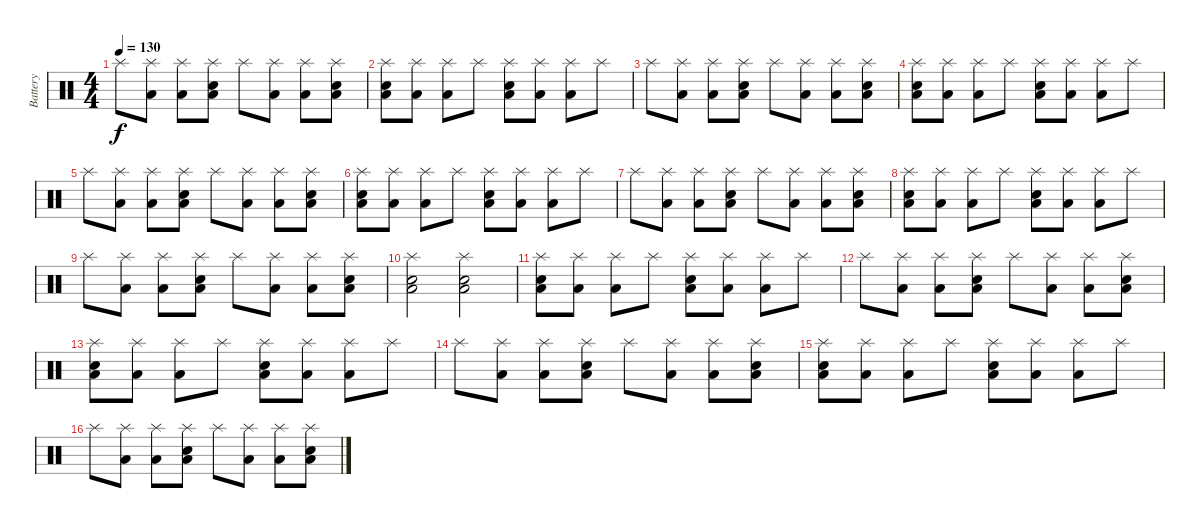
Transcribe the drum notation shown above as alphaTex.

\track ("Battery" "Battery") {instrument percussion}
\staff {score}
\articulation defaults
\ts (4 4)
\tempo 130
\clef neutral
\ks c "Splash (hit)".8{dy f}
("Splash (hit)" "Low Floor Tom (hit)").8 ("Splash (hit)" "Low Floor Tom (hit)").8 ("Splash (hit)" "Low Floor Tom (hit)" "Electric Snare (hit)").8 "Splash (hit)".8 ("Splash (hit)" "Low Floor Tom (hit)").8 ("Splash (hit)" "Low Floor Tom (hit)").8 ("Splash (hit)" "Low Floor Tom (hit)" "Electric Snare (hit)").8 |
("Splash (hit)" "Low Floor Tom (hit)" "Electric Snare (hit)").8 ("Splash (hit)" "Low Floor Tom (hit)").8 ("Splash (hit)" "Low Floor Tom (hit)").8 "Splash (hit)".8 ("Splash (hit)" "Low Floor Tom (hit)" "Electric Snare (hit)").8 ("Splash (hit)" "Low Floor Tom (hit)").8 ("Splash (hit)" "Low Floor Tom (hit)").8 "Splash (hit)".8 |
"Splash (hit)".8 ("Splash (hit)" "Low Floor Tom (hit)").8 ("Splash (hit)" "Low Floor Tom (hit)").8 ("Splash (hit)" "Low Floor Tom (hit)" "Electric Snare (hit)").8 "Splash (hit)".8 ("Splash (hit)" "Low Floor Tom (hit)").8 ("Splash (hit)" "Low Floor Tom (hit)").8 ("Splash (hit)" "Low Floor Tom (hit)" "Electric Snare (hit)").8 |
("Splash (hit)" "Low Floor Tom (hit)" "Electric Snare (hit)").8 ("Splash (hit)" "Low Floor Tom (hit)").8 ("Splash (hit)" "Low Floor Tom (hit)").8 "Splash (hit)".8 ("Splash (hit)" "Low Floor Tom (hit)" "Electric Snare (hit)").8 ("Splash (hit)" "Low Floor Tom (hit)").8 ("Splash (hit)" "Low Floor Tom (hit)").8 "Splash (hit)".8 |
"Splash (hit)".8 ("Splash (hit)" "Low Floor Tom (hit)").8 ("Splash (hit)" "Low Floor Tom (hit)").8 ("Splash (hit)" "Low Floor Tom (hit)" "Electric Snare (hit)").8 "Splash (hit)".8 ("Splash (hit)" "Low Floor Tom (hit)").8 ("Splash (hit)" "Low Floor Tom (hit)").8 ("Splash (hit)" "Low Floor Tom (hit)" "Electric Snare (hit)").8 |
("Splash (hit)" "Low Floor Tom (hit)" "Electric Snare (hit)").8 ("Splash (hit)" "Low Floor Tom (hit)").8 ("Splash (hit)" "Low Floor Tom (hit)").8 "Splash (hit)".8 ("Splash (hit)" "Low Floor Tom (hit)" "Electric Snare (hit)").8 ("Splash (hit)" "Low Floor Tom (hit)").8 ("Splash (hit)" "Low Floor Tom (hit)").8 "Splash (hit)".8 |
"Splash (hit)".8 ("Splash (hit)" "Low Floor Tom (hit)").8 ("Splash (hit)" "Low Floor Tom (hit)").8 ("Splash (hit)" "Low Floor Tom (hit)" "Electric Snare (hit)").8 "Splash (hit)".8 ("Splash (hit)" "Low Floor Tom (hit)").8 ("Splash (hit)" "Low Floor Tom (hit)").8 ("Splash (hit)" "Low Floor Tom (hit)" "Electric Snare (hit)").8 |
("Splash (hit)" "Low Floor Tom (hit)" "Electric Snare (hit)").8 ("Splash (hit)" "Low Floor Tom (hit)").8 ("Splash (hit)" "Low Floor Tom (hit)").8 "Splash (hit)".8 ("Splash (hit)" "Low Floor Tom (hit)" "Electric Snare (hit)").8 ("Splash (hit)" "Low Floor Tom (hit)").8 ("Splash (hit)" "Low Floor Tom (hit)").8 "Splash (hit)".8 |
"Splash (hit)".8 ("Splash (hit)" "Low Floor Tom (hit)").8 ("Splash (hit)" "Low Floor Tom (hit)").8 ("Splash (hit)" "Low Floor Tom (hit)" "Electric Snare (hit)").8 "Splash (hit)".8 ("Splash (hit)" "Low Floor Tom (hit)").8 ("Splash (hit)" "Low Floor Tom (hit)").8 ("Splash (hit)" "Low Floor Tom (hit)" "Electric Snare (hit)").8 |
("Low Floor Tom (hit)" "Electric Snare (hit)" "Splash (hit)").2 ("Low Floor Tom (hit)" "Electric Snare (hit)" "Splash (hit)").2 |
("Splash (hit)" "Low Floor Tom (hit)" "Electric Snare (hit)").8 ("Splash (hit)" "Low Floor Tom (hit)").8 ("Splash (hit)" "Low Floor Tom (hit)").8 "Splash (hit)".8 ("Splash (hit)" "Low Floor Tom (hit)" "Electric Snare (hit)").8 ("Splash (hit)" "Low Floor Tom (hit)").8 ("Splash (hit)" "Low Floor Tom (hit)").8 "Splash (hit)".8 |
"Splash (hit)".8 ("Splash (hit)" "Low Floor Tom (hit)").8 ("Splash (hit)" "Low Floor Tom (hit)").8 ("Splash (hit)" "Low Floor Tom (hit)" "Electric Snare (hit)").8 "Splash (hit)".8 ("Splash (hit)" "Low Floor Tom (hit)").8 ("Splash (hit)" "Low Floor Tom (hit)").8 ("Splash (hit)" "Low Floor Tom (hit)" "Electric Snare (hit)").8 |
("Splash (hit)" "Low Floor Tom (hit)" "Electric Snare (hit)").8 ("Splash (hit)" "Low Floor Tom (hit)").8 ("Splash (hit)" "Low Floor Tom (hit)").8 "Splash (hit)".8 ("Splash (hit)" "Low Floor Tom (hit)" "Electric Snare (hit)").8 ("Splash (hit)" "Low Floor Tom (hit)").8 ("Splash (hit)" "Low Floor Tom (hit)").8 "Splash (hit)".8 |
"Splash (hit)".8 ("Splash (hit)" "Low Floor Tom (hit)").8 ("Splash (hit)" "Low Floor Tom (hit)").8 ("Splash (hit)" "Low Floor Tom (hit)" "Electric Snare (hit)").8 "Splash (hit)".8 ("Splash (hit)" "Low Floor Tom (hit)").8 ("Splash (hit)" "Low Floor Tom (hit)").8 ("Splash (hit)" "Low Floor Tom (hit)" "Electric Snare (hit)").8 |
("Splash (hit)" "Low Floor Tom (hit)" "Electric Snare (hit)").8 ("Splash (hit)" "Low Floor Tom (hit)").8 ("Splash (hit)" "Low Floor Tom (hit)").8 "Splash (hit)".8 ("Splash (hit)" "Low Floor Tom (hit)" "Electric Snare (hit)").8 ("Splash (hit)" "Low Floor Tom (hit)").8 ("Splash (hit)" "Low Floor Tom (hit)").8 "Splash (hit)".8 |
"Splash (hit)".8 ("Splash (hit)" "Low Floor Tom (hit)").8 ("Splash (hit)" "Low Floor Tom (hit)").8 ("Splash (hit)" "Low Floor Tom (hit)" "Electric Snare (hit)").8 "Splash (hit)".8 ("Splash (hit)" "Low Floor Tom (hit)").8 ("Splash (hit)" "Low Floor Tom (hit)").8 ("Splash (hit)" "Low Floor Tom (hit)" "Electric Snare (hit)").8
